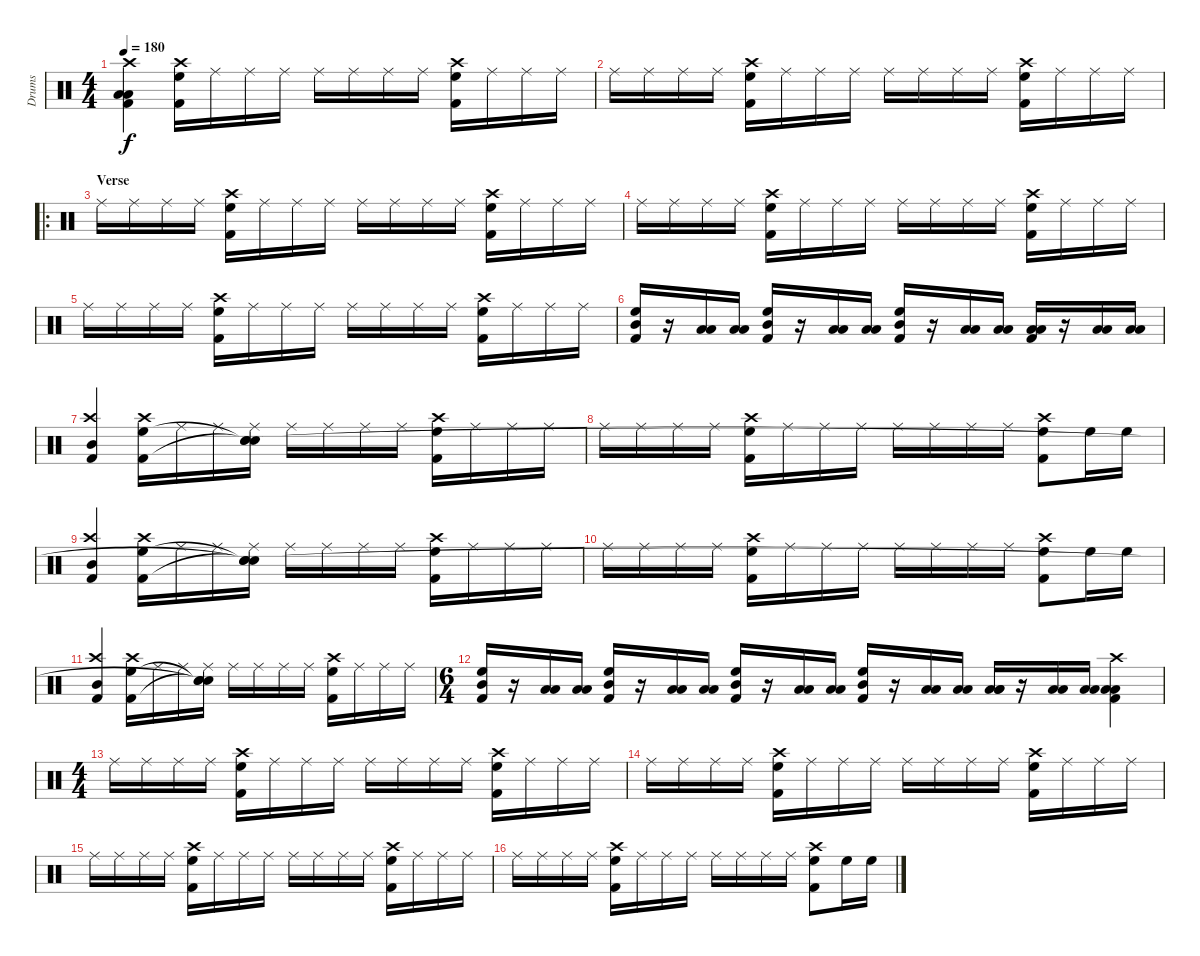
\track ("Drums" "Drums") {instrument percussion}
\staff {score}
\articulation defaults
\ts (4 4)
\tempo 180
\clef neutral
\ks c
("Low Tom (hit)" "Low Tom (hit)" "Kick (hit) 2" "Crash high (hit)").4{dy f} ("Crash high (hit)" "High Floor Tom (hit)" "Kick (hit) 2").16 "Ride (middle)".16 "Ride (middle)".16 "Ride (middle)".16 "Ride (middle)".16 "Ride (middle)".16 "Ride (middle)".16 "Ride (middle)".16 ("Crash high (hit)" "High Floor Tom (hit)" "Kick (hit) 2").16 "Ride (middle)".16 "Ride (middle)".16 "Ride (middle)".16 |
"Ride (middle)".16 "Ride (middle)".16 "Ride (middle)".16 "Ride (middle)".16 ("Crash high (hit)" "High Floor Tom (hit)" "Kick (hit) 2").16 "Ride (middle)".16 "Ride (middle)".16 "Ride (middle)".16 "Ride (middle)".16 "Ride (middle)".16 "Ride (middle)".16 "Ride (middle)".16 ("Crash high (hit)" "High Floor Tom (hit)" "Kick (hit) 2").16 "Ride (middle)".16 "Ride (middle)".16 "Ride (middle)".16 |
\ro
\section ("" "Verse")
"Ride (middle)".16 "Ride (middle)".16 "Ride (middle)".16 "Ride (middle)".16 ("Crash high (hit)" "High Floor Tom (hit)" "Kick (hit) 2").16 "Ride (middle)".16 "Ride (middle)".16 "Ride (middle)".16 "Ride (middle)".16 "Ride (middle)".16 "Ride (middle)".16 "Ride (middle)".16 ("Crash high (hit)" "High Floor Tom (hit)" "Kick (hit) 2").16 "Ride (middle)".16 "Ride (middle)".16 "Ride (middle)".16 |
"Ride (middle)".16 "Ride (middle)".16 "Ride (middle)".16 "Ride (middle)".16 ("Crash high (hit)" "High Floor Tom (hit)" "Kick (hit) 2").16 "Ride (middle)".16 "Ride (middle)".16 "Ride (middle)".16 "Ride (middle)".16 "Ride (middle)".16 "Ride (middle)".16 "Ride (middle)".16 ("Crash high (hit)" "High Floor Tom (hit)" "Kick (hit) 2").16 "Ride (middle)".16 "Ride (middle)".16 "Ride (middle)".16 |
"Ride (middle)".16 "Ride (middle)".16 "Ride (middle)".16 "Ride (middle)".16 ("Crash high (hit)" "High Floor Tom (hit)" "Kick (hit) 2").16 "Ride (middle)".16 "Ride (middle)".16 "Ride (middle)".16 "Ride (middle)".16 "Ride (middle)".16 "Ride (middle)".16 "Ride (middle)".16 ("Crash high (hit)" "High Floor Tom (hit)" "Kick (hit) 2").16 "Ride (middle)".16 "Ride (middle)".16 "Ride (middle)".16 |
("High Floor Tom (hit)" "Mid Tom (hit)" "Kick (hit) 2").16 r.16 ("Low Tom (hit)" "Low Tom (hit)").16 ("Low Tom (hit)" "Low Tom (hit)").16 ("High Floor Tom (hit)" "Mid Tom (hit)" "Kick (hit) 2").16 r.16 ("Low Tom (hit)" "Low Tom (hit)").16 ("Low Tom (hit)" "Low Tom (hit)").16 ("High Floor Tom (hit)" "Mid Tom (hit)" "Kick (hit) 2").16 r.16 ("Low Tom (hit)" "Low Tom (hit)").16 ("Low Tom (hit)" "Low Tom (hit)").16 ("Low Floor Tom (hit)" "Low Floor Tom (hit)" "Kick (hit) 2").16 r.16 ("Low Floor Tom (hit)" "Low Floor Tom (hit)").16 ("Low Floor Tom (hit)" "Low Floor Tom (hit)").16 |
("Crash high (hit)" "Mid Tom (hit)" "Kick (hit) 2").4 ("Crash high (hit)" "High Floor Tom (hit)" "Kick (hit) 2").16 "Ride (middle)".16 "Ride (middle)".16 ("Ride (middle)" "Snare (hit)"{t} "Snare (hit)"{t} "Snare (hit)").16 "Ride (middle)".16 "Ride (middle)".16 "Ride (middle)".16 "Ride (middle)".16 ("Crash high (hit)" "High Floor Tom (hit)" "Kick (hit) 2").16 "Ride (middle)".16 "Ride (middle)".16 "Ride (middle)".16 |
"Ride (middle)".16 "Ride (middle)".16 "Ride (middle)".16 "Ride (middle)".16 ("Crash high (hit)" "High Floor Tom (hit)" "Kick (hit) 2").16 "Ride (middle)".16 "Ride (middle)".16 "Ride (middle)".16 "Ride (middle)".16 "Ride (middle)".16 "Ride (middle)".16 "Ride (middle)".16 ("Crash high (hit)" "High Floor Tom (hit)" "Kick (hit) 2").8 "High Floor Tom (hit)".16 "High Floor Tom (hit)".16 |
("Crash high (hit)" "Mid Tom (hit)" "Kick (hit) 2").4 ("Crash high (hit)" "High Floor Tom (hit)" "Kick (hit) 2").16 "Ride (middle)".16 "Ride (middle)".16 ("Ride (middle)" "Snare (hit)"{t} "Snare (hit)"{t} "Snare (hit)"{t}).16 "Ride (middle)".16 "Ride (middle)".16 "Ride (middle)".16 "Ride (middle)".16 ("Crash high (hit)" "High Floor Tom (hit)" "Kick (hit) 2").16 "Ride (middle)".16 "Ride (middle)".16 "Ride (middle)".16 |
"Ride (middle)".16 "Ride (middle)".16 "Ride (middle)".16 "Ride (middle)".16 ("Crash high (hit)" "High Floor Tom (hit)" "Kick (hit) 2").16 "Ride (middle)".16 "Ride (middle)".16 "Ride (middle)".16 "Ride (middle)".16 "Ride (middle)".16 "Ride (middle)".16 "Ride (middle)".16 ("Crash high (hit)" "High Floor Tom (hit)" "Kick (hit) 2").8 "High Floor Tom (hit)".16 "High Floor Tom (hit)".16 |
("Crash high (hit)" "Mid Tom (hit)" "Kick (hit) 2").4 ("Crash high (hit)" "High Floor Tom (hit)" "Kick (hit) 2").16 "Ride (middle)".16 "Ride (middle)".16 ("Ride (middle)" "Snare (hit)"{t} "Snare (hit)"{t} "Snare (hit)"{t}).16 "Ride (middle)".16 "Ride (middle)".16 "Ride (middle)".16 "Ride (middle)".16 ("Crash high (hit)" "High Floor Tom (hit)" "Kick (hit) 2").16 "Ride (middle)".16 "Ride (middle)".16 "Ride (middle)".16 |
\ts (6 4)
("High Floor Tom (hit)" "Mid Tom (hit)" "Kick (hit) 2").16 r.16 ("Low Tom (hit)" "Low Tom (hit)").16 ("Low Tom (hit)" "Low Tom (hit)").16 ("High Floor Tom (hit)" "Mid Tom (hit)" "Kick (hit) 2").16 r.16 ("Low Tom (hit)" "Low Tom (hit)").16 ("Low Tom (hit)" "Low Tom (hit)").16 ("High Floor Tom (hit)" "Mid Tom (hit)" "Kick (hit) 2").16 r.16 ("Low Tom (hit)" "Low Tom (hit)").16 ("Low Tom (hit)" "Low Tom (hit)").16 ("High Floor Tom (hit)" "Mid Tom (hit)" "Kick (hit) 2").16 r.16 ("Low Tom (hit)" "Low Tom (hit)").16 ("Low Tom (hit)" "Low Tom (hit)").16 ("Low Tom (hit)" "Low Tom (hit)" "Low Floor Tom (hit)").16 r.16 ("Low Floor Tom (hit)" "Low Floor Tom (hit)").16 ("Low Floor Tom (hit)" "Low Floor Tom (hit)").16 ("Low Tom (hit)" "Low Tom (hit)" "Kick (hit) 2" "Crash high (hit)").4 |
\ts (4 4)
"Ride (middle)".16 "Ride (middle)".16 "Ride (middle)".16 "Ride (middle)".16 ("Crash high (hit)" "High Floor Tom (hit)" "Kick (hit) 2").16 "Ride (middle)".16 "Ride (middle)".16 "Ride (middle)".16 "Ride (middle)".16 "Ride (middle)".16 "Ride (middle)".16 "Ride (middle)".16 ("Crash high (hit)" "High Floor Tom (hit)" "Kick (hit) 2").16 "Ride (middle)".16 "Ride (middle)".16 "Ride (middle)".16 |
"Ride (middle)".16 "Ride (middle)".16 "Ride (middle)".16 "Ride (middle)".16 ("Crash high (hit)" "High Floor Tom (hit)" "Kick (hit) 2").16 "Ride (middle)".16 "Ride (middle)".16 "Ride (middle)".16 "Ride (middle)".16 "Ride (middle)".16 "Ride (middle)".16 "Ride (middle)".16 ("Crash high (hit)" "High Floor Tom (hit)" "Kick (hit) 2").16 "Ride (middle)".16 "Ride (middle)".16 "Ride (middle)".16 |
"Ride (middle)".16 "Ride (middle)".16 "Ride (middle)".16 "Ride (middle)".16 ("Crash high (hit)" "High Floor Tom (hit)" "Kick (hit) 2").16 "Ride (middle)".16 "Ride (middle)".16 "Ride (middle)".16 "Ride (middle)".16 "Ride (middle)".16 "Ride (middle)".16 "Ride (middle)".16 ("Crash high (hit)" "High Floor Tom (hit)" "Kick (hit) 2").16 "Ride (middle)".16 "Ride (middle)".16 "Ride (middle)".16 |
"Ride (middle)".16 "Ride (middle)".16 "Ride (middle)".16 "Ride (middle)".16 ("Crash high (hit)" "High Floor Tom (hit)" "Kick (hit) 2").16 "Ride (middle)".16 "Ride (middle)".16 "Ride (middle)".16 "Ride (middle)".16 "Ride (middle)".16 "Ride (middle)".16 "Ride (middle)".16 ("Crash high (hit)" "High Floor Tom (hit)" "Kick (hit) 2").8 "High Floor Tom (hit)".16 "High Floor Tom (hit)".16
